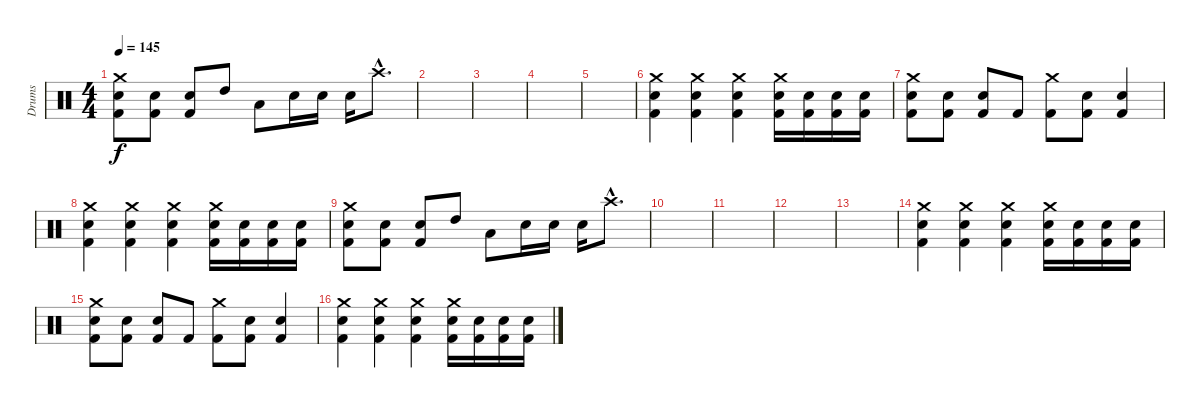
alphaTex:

\track ("Drums" "Drums") {instrument percussion}
\staff {score}
\articulation defaults
\ts (4 4)
\tempo 145
\clef neutral
\ks c
("Crash medium (hit)" "Snare (hit) 2" "Kick (hit) 2").8{dy f} ("Snare (hit) 2" "Kick (hit) 2").8 ("Snare (hit) 2" "Kick (hit) 2").8 "High Tom (hit)".8 "Low Tom (hit)".8 "Snare (hit) 2".16 "Snare (hit) 2".16 "Snare (hit) 2".16 "Crash high (hit)"{hac}.8{d} |
|
|
|
|
("Crash medium (hit)" "Snare (hit) 2" "Kick (hit) 2").4 ("Crash medium (hit)" "Snare (hit) 2" "Kick (hit) 2").4 ("Crash medium (hit)" "Snare (hit) 2" "Kick (hit) 2").4 ("Crash medium (hit)" "Snare (hit) 2" "Kick (hit) 2").16 ("Snare (hit) 2" "Kick (hit) 2").16 ("Snare (hit) 2" "Kick (hit) 2").16 ("Snare (hit) 2" "Kick (hit) 2").16 |
("Crash medium (hit)" "Snare (hit) 2" "Kick (hit) 2").8 ("Snare (hit) 2" "Kick (hit) 2").8 ("Snare (hit) 2" "Kick (hit) 2").8 "Kick (hit) 2".8 ("Crash medium (hit)" "Kick (hit) 2").8 ("Snare (hit) 2" "Kick (hit) 2").8 ("Snare (hit) 2" "Kick (hit) 2").4 |
("Crash medium (hit)" "Snare (hit) 2" "Kick (hit) 2").4 ("Crash medium (hit)" "Snare (hit) 2" "Kick (hit) 2").4 ("Crash medium (hit)" "Snare (hit) 2" "Kick (hit) 2").4 ("Crash medium (hit)" "Snare (hit) 2" "Kick (hit) 2").16 ("Snare (hit) 2" "Kick (hit) 2").16 ("Snare (hit) 2" "Kick (hit) 2").16 ("Snare (hit) 2" "Kick (hit) 2").16 |
("Crash medium (hit)" "Snare (hit) 2" "Kick (hit) 2").8 ("Snare (hit) 2" "Kick (hit) 2").8 ("Snare (hit) 2" "Kick (hit) 2").8 "High Tom (hit)".8 "Low Tom (hit)".8 "Snare (hit) 2".16 "Snare (hit) 2".16 "Snare (hit) 2".16 "Crash high (hit)"{hac}.8{d} |
|
|
|
|
("Crash medium (hit)" "Snare (hit) 2" "Kick (hit) 2").4 ("Crash medium (hit)" "Snare (hit) 2" "Kick (hit) 2").4 ("Crash medium (hit)" "Snare (hit) 2" "Kick (hit) 2").4 ("Crash medium (hit)" "Snare (hit) 2" "Kick (hit) 2").16 ("Snare (hit) 2" "Kick (hit) 2").16 ("Snare (hit) 2" "Kick (hit) 2").16 ("Snare (hit) 2" "Kick (hit) 2").16 |
("Crash medium (hit)" "Snare (hit) 2" "Kick (hit) 2").8 ("Snare (hit) 2" "Kick (hit) 2").8 ("Snare (hit) 2" "Kick (hit) 2").8 "Kick (hit) 2".8 ("Crash medium (hit)" "Kick (hit) 2").8 ("Snare (hit) 2" "Kick (hit) 2").8 ("Snare (hit) 2" "Kick (hit) 2").4 |
("Crash medium (hit)" "Snare (hit) 2" "Kick (hit) 2").4 ("Crash medium (hit)" "Snare (hit) 2" "Kick (hit) 2").4 ("Crash medium (hit)" "Snare (hit) 2" "Kick (hit) 2").4 ("Crash medium (hit)" "Snare (hit) 2" "Kick (hit) 2").16 ("Snare (hit) 2" "Kick (hit) 2").16 ("Snare (hit) 2" "Kick (hit) 2").16 ("Snare (hit) 2" "Kick (hit) 2").16
